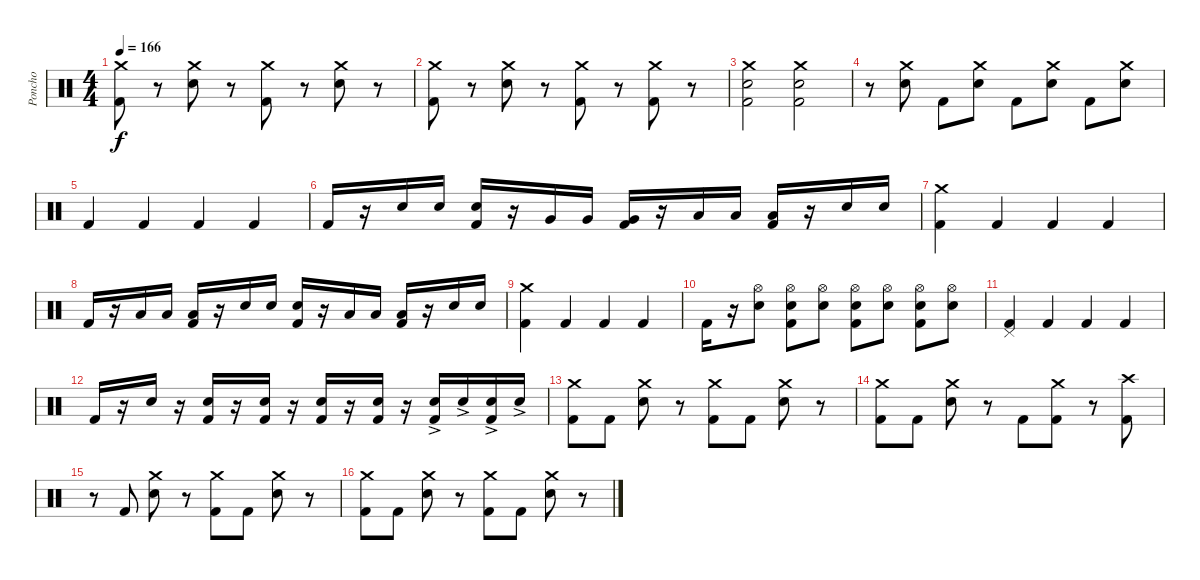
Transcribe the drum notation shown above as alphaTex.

\track ("Poncho" "Poncho") {instrument percussion}
\staff {score}
\articulation defaults
\ts (4 4)
\tempo 166
\clef neutral
\ks c
("Crash medium (hit)" "Kick (hit) 2").8{dy f} r.8 ("Crash medium (hit)" "Electric Snare (hit)").8 r.8 ("Crash medium (hit)" "Kick (hit) 2").8 r.8 ("Crash medium (hit)" "Electric Snare (hit)").8 r.8 |
("Crash medium (hit)" "Kick (hit) 2").8 r.8 ("Crash medium (hit)" "Electric Snare (hit)").8 r.8 ("Crash medium (hit)" "Kick (hit) 2").8 r.8 ("Crash medium (hit)" "Kick (hit) 2").8 r.8 |
("Crash medium (hit)" "Electric Snare (hit)" "Kick (hit) 2").2 ("Crash medium (hit)" "Electric Snare (hit)" "Kick (hit) 2").2 |
r.8 ("Crash medium (hit)" "Electric Snare (hit)").8 "Kick (hit) 2".8 ("Crash medium (hit)" "Electric Snare (hit)").8 "Kick (hit) 2".8 ("Crash medium (hit)" "Electric Snare (hit)").8 "Kick (hit) 2".8 ("Crash medium (hit)" "Electric Snare (hit)").8 |
"Kick (hit) 2".4 "Kick (hit) 2".4 "Kick (hit) 2".4 "Kick (hit) 2".4 |
"Kick (hit) 2".16 r.16 "Electric Snare (hit)".16 "Electric Snare (hit)".16 ("Electric Snare (hit)" "Kick (hit) 2").16 r.16 "Very Low Tom (hit)".16 "Very Low Tom (hit)".16 ("Very Low Tom (hit)" "Kick (hit) 2").16 r.16 "Low Tom (hit)".16 "Low Tom (hit)".16 ("Low Tom (hit)" "Kick (hit) 2").16 r.16 "Electric Snare (hit)".16 "Electric Snare (hit)".16 |
("Crash medium (hit)" "Kick (hit) 2").4 "Kick (hit) 2".4 "Kick (hit) 2".4 "Kick (hit) 2".4 |
"Kick (hit) 2".16 r.16 "Low Tom (hit)".16 "Low Tom (hit)".16 ("Low Tom (hit)" "Kick (hit) 2").16 r.16 "Electric Snare (hit)".16 "Electric Snare (hit)".16 ("Electric Snare (hit)" "Kick (hit) 2").16 r.16 "Low Tom (hit)".16 "Low Tom (hit)".16 ("Low Tom (hit)" "Kick (hit) 2").16 r.16 "Electric Snare (hit)".16 "Electric Snare (hit)".16 |
("Crash medium (hit)" "Kick (hit) 2").4 "Kick (hit) 2".4 "Kick (hit) 2".4 "Kick (hit) 2".4 |
"Kick (hit) 2".16 r.16 ("Hi-Hat (open)" "Electric Snare (hit)").8 ("Hi-Hat (open)" "Electric Snare (hit)" "Kick (hit) 2").8 ("Hi-Hat (open)" "Electric Snare (hit)").8 ("Hi-Hat (open)" "Electric Snare (hit)" "Kick (hit) 2").8 ("Hi-Hat (open)" "Electric Snare (hit)").8 ("Hi-Hat (open)" "Electric Snare (hit)" "Kick (hit) 2").8 ("Hi-Hat (open)" "Electric Snare (hit)").8 |
("Pedal Hi-Hat (hit)" "Kick (hit) 2").4 "Kick (hit) 2".4 "Kick (hit) 2".4 "Kick (hit) 2".4 |
"Kick (hit) 2".16 r.16 "Electric Snare (hit)".16 r.16 ("Electric Snare (hit)" "Kick (hit) 2").16 r.16 ("Electric Snare (hit)" "Kick (hit) 2").16 r.16 ("Electric Snare (hit)" "Kick (hit) 2").16 r.16 ("Electric Snare (hit)" "Kick (hit) 2").16 r.16 ("Electric Snare (hit)"{ac} "Kick (hit) 2").16 "Electric Snare (hit)"{ac}.16 ("Electric Snare (hit)"{ac} "Kick (hit) 2").16 "Electric Snare (hit)"{ac}.16 |
("Crash medium (hit)" "Kick (hit) 2").8 "Kick (hit) 2".8 ("Crash medium (hit)" "Electric Snare (hit)").8 r.8 ("Crash medium (hit)" "Kick (hit) 2").8 "Kick (hit) 2".8 ("Crash medium (hit)" "Electric Snare (hit)").8 r.8 |
("Crash medium (hit)" "Kick (hit) 2").8 "Kick (hit) 2".8 ("Crash medium (hit)" "Electric Snare (hit)").8 r.8 "Kick (hit) 2".8 ("Crash medium (hit)" "Kick (hit) 2").8 r.8 ("Crash high (hit)" "Kick (hit) 2").8 |
r.8 "Kick (hit) 2".8 ("Crash medium (hit)" "Electric Snare (hit)").8 r.8 ("Crash medium (hit)" "Kick (hit) 2").8 "Kick (hit) 2".8 ("Crash medium (hit)" "Electric Snare (hit)").8 r.8 |
("Crash medium (hit)" "Kick (hit) 2").8 "Kick (hit) 2".8 ("Crash medium (hit)" "Electric Snare (hit)").8 r.8 ("Crash medium (hit)" "Kick (hit) 2").8 "Kick (hit) 2".8 ("Crash medium (hit)" "Electric Snare (hit)").8 r.8
